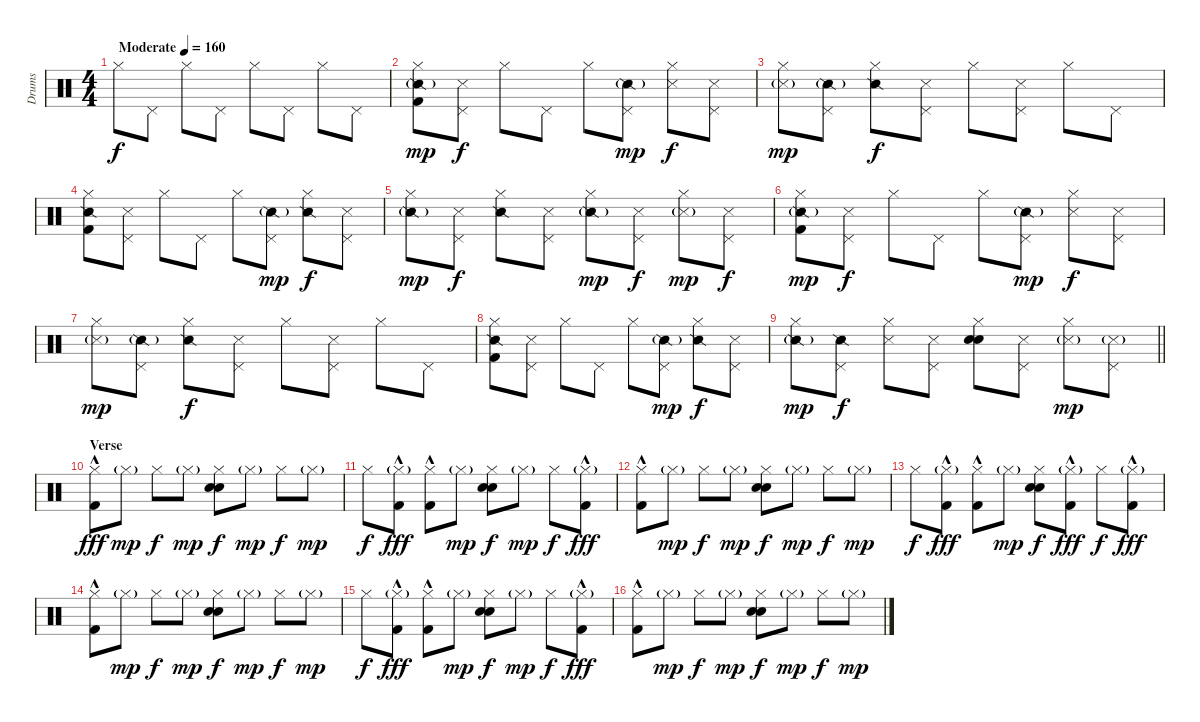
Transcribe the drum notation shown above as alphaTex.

\track ("Drums" "Drums") {instrument percussion}
\staff {score}
\articulation defaults
\ts (4 4)
\tempo (160 "Moderate")
\clef neutral
\ks c "Hi-Hat (closed)".8{dy f} "Pedal Hi-Hat (hit)".8 "Hi-Hat (closed)".8 "Pedal Hi-Hat (hit)".8 "Hi-Hat (closed)".8 "Pedal Hi-Hat (hit)".8 "Hi-Hat (closed)".8 "Pedal Hi-Hat (hit)".8
|
("Snare (side stick) 2"{g} "Hi-Hat (closed)" "Kick (hit) 2").8{dy mp} ("Snare (side stick) 3" "Pedal Hi-Hat (hit)").8{dy f} "Hi-Hat (closed)".8 "Pedal Hi-Hat (hit)".8 "Hi-Hat (closed)".8 ("Snare (side stick) 2"{g} "Pedal Hi-Hat (hit)").8{dy mp} ("Snare (side stick) 3" "Hi-Hat (closed)").8{dy f} ("Snare (side stick) 3" "Pedal Hi-Hat (hit)").8 |
("Snare (side stick) 3"{g} "Hi-Hat (closed)").8{dy mp} ("Snare (side stick) 2"{g} "Pedal Hi-Hat (hit)").8 ("Snare (side stick) 2" "Hi-Hat (closed)").8{dy f} ("Snare (side stick) 3" "Pedal Hi-Hat (hit)").8 "Hi-Hat (closed)".8 ("Snare (side stick) 3" "Pedal Hi-Hat (hit)").8 "Hi-Hat (closed)".8 "Pedal Hi-Hat (hit)".8 |
("Snare (side stick) 2" "Hi-Hat (closed)" "Kick (hit) 2").8 ("Snare (side stick) 3" "Pedal Hi-Hat (hit)").8 "Hi-Hat (closed)".8 "Pedal Hi-Hat (hit)".8 "Hi-Hat (closed)".8 ("Snare (side stick) 2"{g} "Pedal Hi-Hat (hit)").8{dy mp} ("Snare (side stick) 2" "Hi-Hat (closed)").8{dy f} ("Snare (side stick) 3" "Pedal Hi-Hat (hit)").8 |
("Snare (side stick) 2"{g} "Hi-Hat (closed)").8{dy mp} ("Snare (side stick) 3" "Pedal Hi-Hat (hit)").8{dy f} ("Snare (side stick) 2" "Hi-Hat (closed)").8 ("Snare (side stick) 3" "Pedal Hi-Hat (hit)").8 ("Snare (side stick) 2"{g} "Hi-Hat (closed)").8{dy mp} ("Snare (side stick) 3" "Pedal Hi-Hat (hit)").8{dy f} ("Snare (side stick) 3"{g} "Hi-Hat (closed)").8{dy mp} ("Snare (side stick) 3" "Pedal Hi-Hat (hit)").8{dy f} |
("Snare (side stick) 2"{g} "Hi-Hat (closed)" "Kick (hit) 2").8{dy mp} ("Snare (side stick) 3" "Pedal Hi-Hat (hit)").8{dy f} "Hi-Hat (closed)".8 "Pedal Hi-Hat (hit)".8 "Hi-Hat (closed)".8 ("Snare (side stick) 2"{g} "Pedal Hi-Hat (hit)").8{dy mp} ("Snare (side stick) 3" "Hi-Hat (closed)").8{dy f} ("Snare (side stick) 3" "Pedal Hi-Hat (hit)").8 |
("Snare (side stick) 3"{g} "Hi-Hat (closed)").8{dy mp} ("Snare (side stick) 2"{g} "Pedal Hi-Hat (hit)").8 ("Snare (side stick) 2" "Hi-Hat (closed)").8{dy f} ("Snare (side stick) 3" "Pedal Hi-Hat (hit)").8 "Hi-Hat (closed)".8 ("Snare (side stick) 3" "Pedal Hi-Hat (hit)").8 "Hi-Hat (closed)".8 "Pedal Hi-Hat (hit)".8 |
("Snare (side stick) 2" "Hi-Hat (closed)" "Kick (hit) 2").8 ("Snare (side stick) 3" "Pedal Hi-Hat (hit)").8 "Hi-Hat (closed)".8 "Pedal Hi-Hat (hit)".8 "Hi-Hat (closed)".8 ("Snare (side stick) 2"{g} "Pedal Hi-Hat (hit)").8{dy mp} ("Snare (side stick) 2" "Hi-Hat (closed)").8{dy f} ("Snare (side stick) 3" "Pedal Hi-Hat (hit)").8 |
\barLineRight lightlight
("Snare (side stick) 2"{g} "Hi-Hat (closed)").8{dy mp} ("Snare (side stick) 2" "Pedal Hi-Hat (hit)").8{dy f} ("Snare (side stick) 3" "Hi-Hat (closed)").8 ("Snare (side stick) 3" "Pedal Hi-Hat (hit)").8 ("Snare (hit) 2" "Electric Snare (hit)" "Hi-Hat (closed)").8 ("Snare (side stick) 3" "Pedal Hi-Hat (hit)").8 ("Snare (side stick) 3"{g} "Hi-Hat (closed)").8{dy mp} ("Snare (side stick) 3"{g} "Pedal Hi-Hat (hit)").8 |
\section ("" "Verse")
("Hi-Hat (closed)" "Kick (hit) 2"{hac}).8{dy fff} "Hi-Hat (closed)"{g}.8{dy mp} "Hi-Hat (closed)".8{dy f} "Hi-Hat (closed)"{g}.8{dy mp} ("Hi-Hat (closed)" "Hand Clap (hit)" "Electric Snare (hit)").8{dy f} "Hi-Hat (closed)"{g}.8{dy mp} "Hi-Hat (closed)".8{dy f} "Hi-Hat (closed)"{g}.8{dy mp} |
"Hi-Hat (closed)".8{dy f} ("Hi-Hat (closed)"{g} "Kick (hit) 2"{hac}).8{dy fff} ("Hi-Hat (closed)" "Kick (hit) 2"{hac}).8 "Hi-Hat (closed)"{g}.8{dy mp} ("Hi-Hat (closed)" "Hand Clap (hit)" "Electric Snare (hit)").8{dy f} "Hi-Hat (closed)"{g}.8{dy mp} "Hi-Hat (closed)".8{dy f} ("Hi-Hat (closed)"{g} "Kick (hit) 2"{hac}).8{dy fff} |
("Hi-Hat (closed)" "Kick (hit) 2"{hac}).8 "Hi-Hat (closed)"{g}.8{dy mp} "Hi-Hat (closed)".8{dy f} "Hi-Hat (closed)"{g}.8{dy mp} ("Hi-Hat (closed)" "Hand Clap (hit)" "Electric Snare (hit)").8{dy f} "Hi-Hat (closed)"{g}.8{dy mp} "Hi-Hat (closed)".8{dy f} "Hi-Hat (closed)"{g}.8{dy mp} |
"Hi-Hat (closed)".8{dy f} ("Hi-Hat (closed)"{g} "Kick (hit) 2"{hac}).8{dy fff} ("Hi-Hat (closed)" "Kick (hit) 2"{hac}).8 "Hi-Hat (closed)"{g}.8{dy mp} ("Hi-Hat (closed)" "Hand Clap (hit)" "Electric Snare (hit)").8{dy f} ("Hi-Hat (closed)"{g} "Kick (hit) 2"{hac}).8{dy fff} "Hi-Hat (closed)".8{dy f} ("Hi-Hat (closed)"{g} "Kick (hit) 2"{hac}).8{dy fff} |
("Hi-Hat (closed)" "Kick (hit) 2"{hac}).8 "Hi-Hat (closed)"{g}.8{dy mp} "Hi-Hat (closed)".8{dy f} "Hi-Hat (closed)"{g}.8{dy mp} ("Hi-Hat (closed)" "Hand Clap (hit)" "Electric Snare (hit)").8{dy f} "Hi-Hat (closed)"{g}.8{dy mp} "Hi-Hat (closed)".8{dy f} "Hi-Hat (closed)"{g}.8{dy mp} |
"Hi-Hat (closed)".8{dy f} ("Hi-Hat (closed)"{g} "Kick (hit) 2"{hac}).8{dy fff} ("Hi-Hat (closed)" "Kick (hit) 2"{hac}).8 "Hi-Hat (closed)"{g}.8{dy mp} ("Hi-Hat (closed)" "Hand Clap (hit)" "Electric Snare (hit)").8{dy f} "Hi-Hat (closed)"{g}.8{dy mp} "Hi-Hat (closed)".8{dy f} ("Hi-Hat (closed)"{g} "Kick (hit) 2"{hac}).8{dy fff} |
("Hi-Hat (closed)" "Kick (hit) 2"{hac}).8 "Hi-Hat (closed)"{g}.8{dy mp} "Hi-Hat (closed)".8{dy f} "Hi-Hat (closed)"{g}.8{dy mp} ("Hi-Hat (closed)" "Hand Clap (hit)" "Electric Snare (hit)").8{dy f} "Hi-Hat (closed)"{g}.8{dy mp} "Hi-Hat (closed)".8{dy f} "Hi-Hat (closed)"{g}.8{dy mp}
